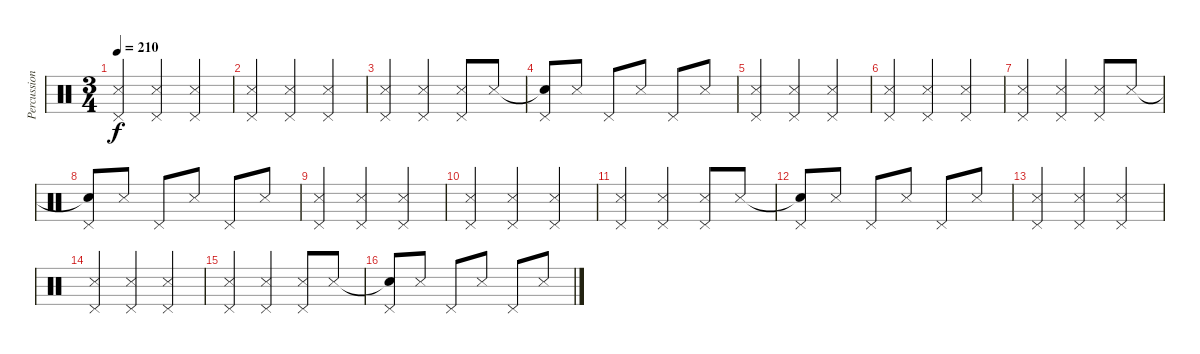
\track ("Percussion" "Percussion") {instrument percussion}
\staff
\articulation defaults
\ts (3 4)
\tempo 210
\clef neutral
\ks c
("Snare (side stick) 3" "Pedal Hi-Hat (hit)").4{dy f} ("Snare (side stick) 3" "Pedal Hi-Hat (hit)").4 ("Snare (side stick) 3" "Pedal Hi-Hat (hit)").4 |
("Snare (side stick) 3" "Pedal Hi-Hat (hit)").4 ("Snare (side stick) 3" "Pedal Hi-Hat (hit)").4 ("Snare (side stick) 3" "Pedal Hi-Hat (hit)").4 |
("Snare (side stick) 3" "Pedal Hi-Hat (hit)").4 ("Snare (side stick) 3" "Pedal Hi-Hat (hit)").4 ("Snare (side stick) 3" "Pedal Hi-Hat (hit)").8 "Snare (side stick) 3".8 |
("Snare (hit)"{t} "Pedal Hi-Hat (hit)").8 "Snare (side stick) 3".8 "Pedal Hi-Hat (hit)".8 "Snare (side stick) 3".8 "Pedal Hi-Hat (hit)".8 "Snare (side stick) 3".8 |
("Snare (side stick) 3" "Pedal Hi-Hat (hit)").4 ("Snare (side stick) 3" "Pedal Hi-Hat (hit)").4 ("Snare (side stick) 3" "Pedal Hi-Hat (hit)").4 |
("Snare (side stick) 3" "Pedal Hi-Hat (hit)").4 ("Snare (side stick) 3" "Pedal Hi-Hat (hit)").4 ("Snare (side stick) 3" "Pedal Hi-Hat (hit)").4 |
("Snare (side stick) 3" "Pedal Hi-Hat (hit)").4 ("Snare (side stick) 3" "Pedal Hi-Hat (hit)").4 ("Snare (side stick) 3" "Pedal Hi-Hat (hit)").8 "Snare (side stick) 3".8 |
("Snare (hit)"{t} "Pedal Hi-Hat (hit)").8 "Snare (side stick) 3".8 "Pedal Hi-Hat (hit)".8 "Snare (side stick) 3".8 "Pedal Hi-Hat (hit)".8 "Snare (side stick) 3".8 |
("Snare (side stick) 3" "Pedal Hi-Hat (hit)").4 ("Snare (side stick) 3" "Pedal Hi-Hat (hit)").4 ("Snare (side stick) 3" "Pedal Hi-Hat (hit)").4 |
("Snare (side stick) 3" "Pedal Hi-Hat (hit)").4 ("Snare (side stick) 3" "Pedal Hi-Hat (hit)").4 ("Snare (side stick) 3" "Pedal Hi-Hat (hit)").4 |
("Snare (side stick) 3" "Pedal Hi-Hat (hit)").4 ("Snare (side stick) 3" "Pedal Hi-Hat (hit)").4 ("Snare (side stick) 3" "Pedal Hi-Hat (hit)").8 "Snare (side stick) 3".8 |
("Snare (hit)"{t} "Pedal Hi-Hat (hit)").8 "Snare (side stick) 3".8 "Pedal Hi-Hat (hit)".8 "Snare (side stick) 3".8 "Pedal Hi-Hat (hit)".8 "Snare (side stick) 3".8 |
("Snare (side stick) 3" "Pedal Hi-Hat (hit)").4 ("Snare (side stick) 3" "Pedal Hi-Hat (hit)").4 ("Snare (side stick) 3" "Pedal Hi-Hat (hit)").4 |
("Snare (side stick) 3" "Pedal Hi-Hat (hit)").4 ("Snare (side stick) 3" "Pedal Hi-Hat (hit)").4 ("Snare (side stick) 3" "Pedal Hi-Hat (hit)").4 |
("Snare (side stick) 3" "Pedal Hi-Hat (hit)").4 ("Snare (side stick) 3" "Pedal Hi-Hat (hit)").4 ("Snare (side stick) 3" "Pedal Hi-Hat (hit)").8 "Snare (side stick) 3".8 |
("Snare (hit)"{t} "Pedal Hi-Hat (hit)").8 "Snare (side stick) 3".8 "Pedal Hi-Hat (hit)".8 "Snare (side stick) 3".8 "Pedal Hi-Hat (hit)".8 "Snare (side stick) 3".8
